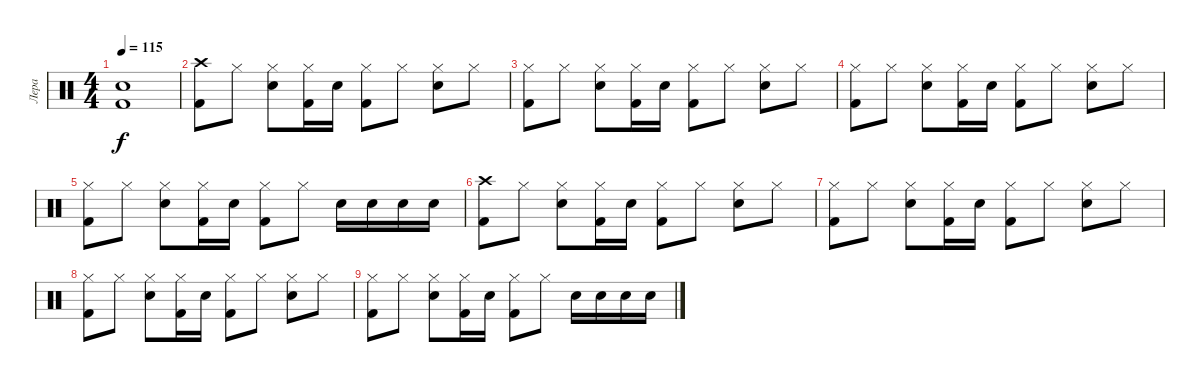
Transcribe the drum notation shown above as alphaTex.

\track ("Лера" "Лера") {instrument percussion}
\staff {score}
\articulation defaults
\ts (4 4)
\tempo 115
\clef neutral
\ks c
("Electric Snare (hit)" "Kick (hit) 2").1{dy f} |
("Crash high (hit)" "Kick (hit) 2").8 "Hi-Hat (closed)".8 ("Hi-Hat (closed)" "Electric Snare (hit)").8 ("Hi-Hat (closed)" "Kick (hit) 2").16 "Electric Snare (hit)".16 ("Hi-Hat (closed)" "Kick (hit) 2").8 "Hi-Hat (closed)".8 ("Hi-Hat (closed)" "Electric Snare (hit)").8 "Hi-Hat (closed)".8 |
("Hi-Hat (closed)" "Kick (hit) 2").8 "Hi-Hat (closed)".8 ("Hi-Hat (closed)" "Electric Snare (hit)").8 ("Hi-Hat (closed)" "Kick (hit) 2").16 "Electric Snare (hit)".16 ("Hi-Hat (closed)" "Kick (hit) 2").8 "Hi-Hat (closed)".8 ("Hi-Hat (closed)" "Electric Snare (hit)").8 "Hi-Hat (closed)".8 |
("Hi-Hat (closed)" "Kick (hit) 2").8 "Hi-Hat (closed)".8 ("Hi-Hat (closed)" "Electric Snare (hit)").8 ("Hi-Hat (closed)" "Kick (hit) 2").16 "Electric Snare (hit)".16 ("Hi-Hat (closed)" "Kick (hit) 2").8 "Hi-Hat (closed)".8 ("Hi-Hat (closed)" "Electric Snare (hit)").8 "Hi-Hat (closed)".8 |
("Hi-Hat (closed)" "Kick (hit) 2").8 "Hi-Hat (closed)".8 ("Hi-Hat (closed)" "Electric Snare (hit)").8 ("Hi-Hat (closed)" "Kick (hit) 2").16 "Electric Snare (hit)".16 ("Hi-Hat (closed)" "Kick (hit) 2").8 "Hi-Hat (closed)".8 "Electric Snare (hit)".16 "Electric Snare (hit)".16 "Electric Snare (hit)".16 "Electric Snare (hit)".16 |
("Crash high (hit)" "Kick (hit) 2").8 "Hi-Hat (closed)".8 ("Hi-Hat (closed)" "Electric Snare (hit)").8 ("Hi-Hat (closed)" "Kick (hit) 2").16 "Electric Snare (hit)".16 ("Hi-Hat (closed)" "Kick (hit) 2").8 "Hi-Hat (closed)".8 ("Hi-Hat (closed)" "Electric Snare (hit)").8 "Hi-Hat (closed)".8 |
("Hi-Hat (closed)" "Kick (hit) 2").8 "Hi-Hat (closed)".8 ("Hi-Hat (closed)" "Electric Snare (hit)").8 ("Hi-Hat (closed)" "Kick (hit) 2").16 "Electric Snare (hit)".16 ("Hi-Hat (closed)" "Kick (hit) 2").8 "Hi-Hat (closed)".8 ("Hi-Hat (closed)" "Electric Snare (hit)").8 "Hi-Hat (closed)".8 |
("Hi-Hat (closed)" "Kick (hit) 2").8 "Hi-Hat (closed)".8 ("Hi-Hat (closed)" "Electric Snare (hit)").8 ("Hi-Hat (closed)" "Kick (hit) 2").16 "Electric Snare (hit)".16 ("Hi-Hat (closed)" "Kick (hit) 2").8 "Hi-Hat (closed)".8 ("Hi-Hat (closed)" "Electric Snare (hit)").8 "Hi-Hat (closed)".8 |
("Hi-Hat (closed)" "Kick (hit) 2").8 "Hi-Hat (closed)".8 ("Hi-Hat (closed)" "Electric Snare (hit)").8 ("Hi-Hat (closed)" "Kick (hit) 2").16 "Electric Snare (hit)".16 ("Hi-Hat (closed)" "Kick (hit) 2").8 "Hi-Hat (closed)".8 "Electric Snare (hit)".16 "Electric Snare (hit)".16 "Electric Snare (hit)".16 "Electric Snare (hit)".16
